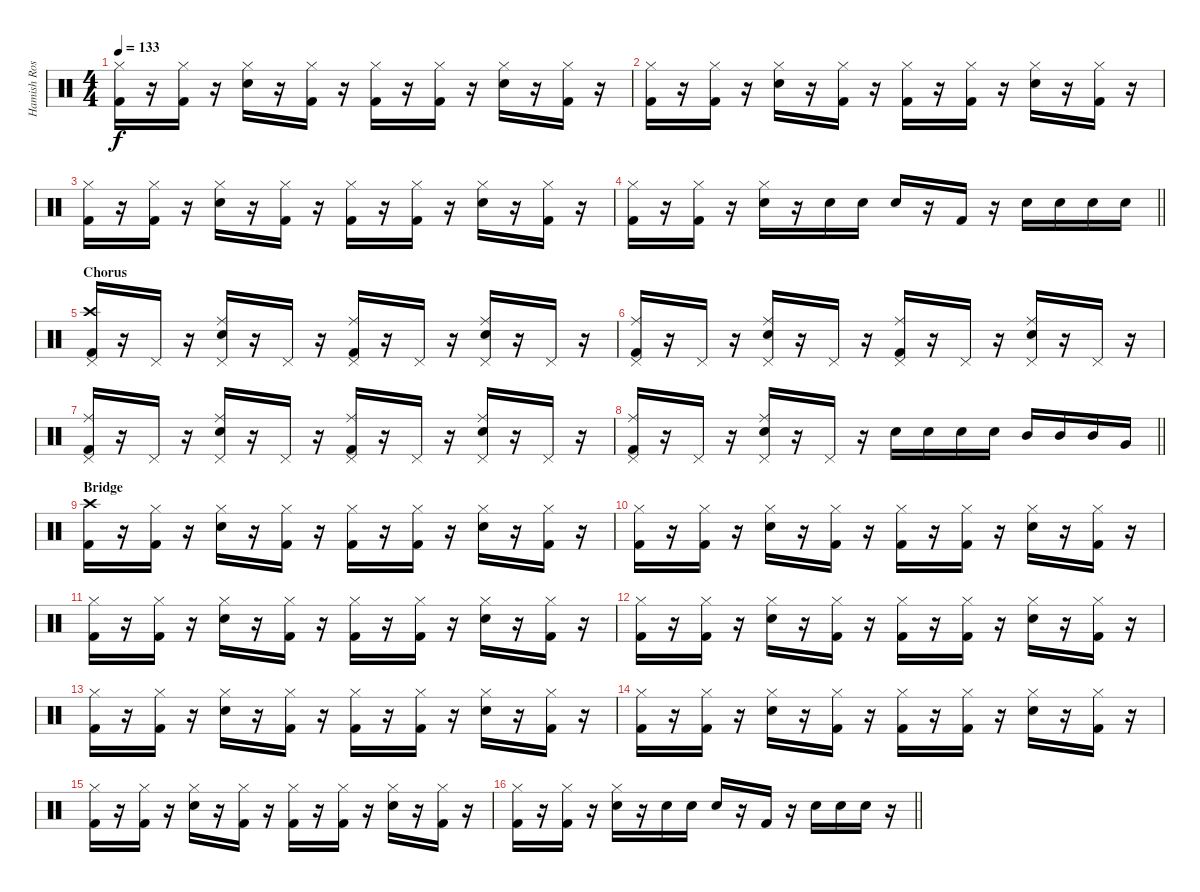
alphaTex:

\track ("Hamish Rosser (Main-Tune Drums Track)" "Hamish Ros") {instrument percussion}
\staff {score}
\articulation defaults
\ts (4 4)
\tempo 133
\clef neutral
\ks c
("Hi-Hat (closed)" "Kick (hit) 2").16{dy f} r.16 ("Hi-Hat (closed)" "Kick (hit) 2").16 r.16 ("Hi-Hat (closed)" "Snare (hit) 2").16 r.16 ("Hi-Hat (closed)" "Kick (hit) 2").16 r.16 ("Hi-Hat (closed)" "Kick (hit) 2").16 r.16 ("Hi-Hat (closed)" "Kick (hit) 2").16 r.16 ("Hi-Hat (closed)" "Snare (hit) 2").16 r.16 ("Hi-Hat (closed)" "Kick (hit) 2").16 r.16 |
("Hi-Hat (closed)" "Kick (hit) 2").16 r.16 ("Hi-Hat (closed)" "Kick (hit) 2").16 r.16 ("Hi-Hat (closed)" "Snare (hit) 2").16 r.16 ("Hi-Hat (closed)" "Kick (hit) 2").16 r.16 ("Hi-Hat (closed)" "Kick (hit) 2").16 r.16 ("Hi-Hat (closed)" "Kick (hit) 2").16 r.16 ("Hi-Hat (closed)" "Snare (hit) 2").16 r.16 ("Hi-Hat (closed)" "Kick (hit) 2").16 r.16 |
("Hi-Hat (closed)" "Kick (hit) 2").16 r.16 ("Hi-Hat (closed)" "Kick (hit) 2").16 r.16 ("Hi-Hat (closed)" "Snare (hit) 2").16 r.16 ("Hi-Hat (closed)" "Kick (hit) 2").16 r.16 ("Hi-Hat (closed)" "Kick (hit) 2").16 r.16 ("Hi-Hat (closed)" "Kick (hit) 2").16 r.16 ("Hi-Hat (closed)" "Snare (hit) 2").16 r.16 ("Hi-Hat (closed)" "Kick (hit) 2").16 r.16 |
\barLineRight lightlight
("Hi-Hat (closed)" "Kick (hit) 2").16 r.16 ("Hi-Hat (closed)" "Kick (hit) 2").16 r.16 ("Hi-Hat (closed)" "Snare (hit) 2").16 r.16 "Snare (hit) 2".16 "Snare (hit) 2".16 "Snare (hit) 2".16 r.16 "Kick (hit) 2".16 r.16 "Snare (hit) 2".16 "Snare (hit) 2".16 "Snare (hit) 2".16 "Snare (hit) 2".16 |
\section ("" "Chorus")
("Crash high (hit)" "Pedal Hi-Hat (hit)" "Kick (hit) 2").16 r.16 "Pedal Hi-Hat (hit)".16 r.16 ("Ride (middle)" "Pedal Hi-Hat (hit)" "Snare (hit) 2").16 r.16 "Pedal Hi-Hat (hit)".16 r.16 ("Ride (middle)" "Pedal Hi-Hat (hit)" "Kick (hit) 2").16 r.16 "Pedal Hi-Hat (hit)".16 r.16 ("Ride (middle)" "Pedal Hi-Hat (hit)" "Snare (hit) 2").16 r.16 "Pedal Hi-Hat (hit)".16 r.16 |
("Ride (middle)" "Pedal Hi-Hat (hit)" "Kick (hit) 2").16 r.16 "Pedal Hi-Hat (hit)".16 r.16 ("Ride (middle)" "Pedal Hi-Hat (hit)" "Snare (hit) 2").16 r.16 "Pedal Hi-Hat (hit)".16 r.16 ("Ride (middle)" "Pedal Hi-Hat (hit)" "Kick (hit) 2").16 r.16 "Pedal Hi-Hat (hit)".16 r.16 ("Ride (middle)" "Pedal Hi-Hat (hit)" "Snare (hit) 2").16 r.16 "Pedal Hi-Hat (hit)".16 r.16 |
("Ride (middle)" "Pedal Hi-Hat (hit)" "Kick (hit) 2").16 r.16 "Pedal Hi-Hat (hit)".16 r.16 ("Ride (middle)" "Pedal Hi-Hat (hit)" "Snare (hit) 2").16 r.16 "Pedal Hi-Hat (hit)".16 r.16 ("Ride (middle)" "Pedal Hi-Hat (hit)" "Kick (hit) 2").16 r.16 "Pedal Hi-Hat (hit)".16 r.16 ("Ride (middle)" "Pedal Hi-Hat (hit)" "Snare (hit) 2").16 r.16 "Pedal Hi-Hat (hit)".16 r.16 |
\barLineRight lightlight
("Ride (middle)" "Pedal Hi-Hat (hit)" "Kick (hit) 2").16 r.16 "Pedal Hi-Hat (hit)".16 r.16 ("Ride (middle)" "Pedal Hi-Hat (hit)" "Snare (hit) 2").16 r.16 "Pedal Hi-Hat (hit)".16 r.16 "Snare (hit) 2".16 "Snare (hit) 2".16 "Snare (hit) 2".16 "Snare (hit) 2".16 "Mid Tom (hit)".16 "Mid Tom (hit)".16 "Mid Tom (hit)".16 "Very Low Tom (hit)".16 |
\section ("" "Bridge")
("Crash high (hit)" "Kick (hit) 2").16 r.16 ("Hi-Hat (closed)" "Kick (hit) 2").16 r.16 ("Hi-Hat (closed)" "Snare (hit) 2").16 r.16 ("Hi-Hat (closed)" "Kick (hit) 2").16 r.16 ("Hi-Hat (closed)" "Kick (hit) 2").16 r.16 ("Hi-Hat (closed)" "Kick (hit) 2").16 r.16 ("Hi-Hat (closed)" "Snare (hit) 2").16 r.16 ("Hi-Hat (closed)" "Kick (hit) 2").16 r.16 |
("Hi-Hat (closed)" "Kick (hit) 2").16 r.16 ("Hi-Hat (closed)" "Kick (hit) 2").16 r.16 ("Hi-Hat (closed)" "Snare (hit) 2").16 r.16 ("Hi-Hat (closed)" "Kick (hit) 2").16 r.16 ("Hi-Hat (closed)" "Kick (hit) 2").16 r.16 ("Hi-Hat (closed)" "Kick (hit) 2").16 r.16 ("Hi-Hat (closed)" "Snare (hit) 2").16 r.16 ("Hi-Hat (closed)" "Kick (hit) 2").16 r.16 |
("Hi-Hat (closed)" "Kick (hit) 2").16 r.16 ("Hi-Hat (closed)" "Kick (hit) 2").16 r.16 ("Hi-Hat (closed)" "Snare (hit) 2").16 r.16 ("Hi-Hat (closed)" "Kick (hit) 2").16 r.16 ("Hi-Hat (closed)" "Kick (hit) 2").16 r.16 ("Hi-Hat (closed)" "Kick (hit) 2").16 r.16 ("Hi-Hat (closed)" "Snare (hit) 2").16 r.16 ("Hi-Hat (closed)" "Kick (hit) 2").16 r.16 |
("Hi-Hat (closed)" "Kick (hit) 2").16 r.16 ("Hi-Hat (closed)" "Kick (hit) 2").16 r.16 ("Hi-Hat (closed)" "Snare (hit) 2").16 r.16 ("Hi-Hat (closed)" "Kick (hit) 2").16 r.16 ("Hi-Hat (closed)" "Kick (hit) 2").16 r.16 ("Hi-Hat (closed)" "Kick (hit) 2").16 r.16 ("Hi-Hat (closed)" "Snare (hit) 2").16 r.16 ("Hi-Hat (closed)" "Kick (hit) 2").16 r.16 |
("Hi-Hat (closed)" "Kick (hit) 2").16 r.16 ("Hi-Hat (closed)" "Kick (hit) 2").16 r.16 ("Hi-Hat (closed)" "Snare (hit) 2").16 r.16 ("Hi-Hat (closed)" "Kick (hit) 2").16 r.16 ("Hi-Hat (closed)" "Kick (hit) 2").16 r.16 ("Hi-Hat (closed)" "Kick (hit) 2").16 r.16 ("Hi-Hat (closed)" "Snare (hit) 2").16 r.16 ("Hi-Hat (closed)" "Kick (hit) 2").16 r.16 |
("Hi-Hat (closed)" "Kick (hit) 2").16 r.16 ("Hi-Hat (closed)" "Kick (hit) 2").16 r.16 ("Hi-Hat (closed)" "Snare (hit) 2").16 r.16 ("Hi-Hat (closed)" "Kick (hit) 2").16 r.16 ("Hi-Hat (closed)" "Kick (hit) 2").16 r.16 ("Hi-Hat (closed)" "Kick (hit) 2").16 r.16 ("Hi-Hat (closed)" "Snare (hit) 2").16 r.16 ("Hi-Hat (closed)" "Kick (hit) 2").16 r.16 |
("Hi-Hat (closed)" "Kick (hit) 2").16 r.16 ("Hi-Hat (closed)" "Kick (hit) 2").16 r.16 ("Hi-Hat (closed)" "Snare (hit) 2").16 r.16 ("Hi-Hat (closed)" "Kick (hit) 2").16 r.16 ("Hi-Hat (closed)" "Kick (hit) 2").16 r.16 ("Hi-Hat (closed)" "Kick (hit) 2").16 r.16 ("Hi-Hat (closed)" "Snare (hit) 2").16 r.16 ("Hi-Hat (closed)" "Kick (hit) 2").16 r.16 |
\barLineRight lightlight
("Hi-Hat (closed)" "Kick (hit) 2").16 r.16 ("Hi-Hat (closed)" "Kick (hit) 2").16 r.16 ("Hi-Hat (closed)" "Snare (hit) 2").16 r.16 "Snare (hit) 2".16 "Snare (hit) 2".16 "Snare (hit) 2".16 r.16 "Kick (hit) 2".16 r.16 "Snare (hit) 2".16 "Snare (hit) 2".16 "Snare (hit) 2".16 r.16
